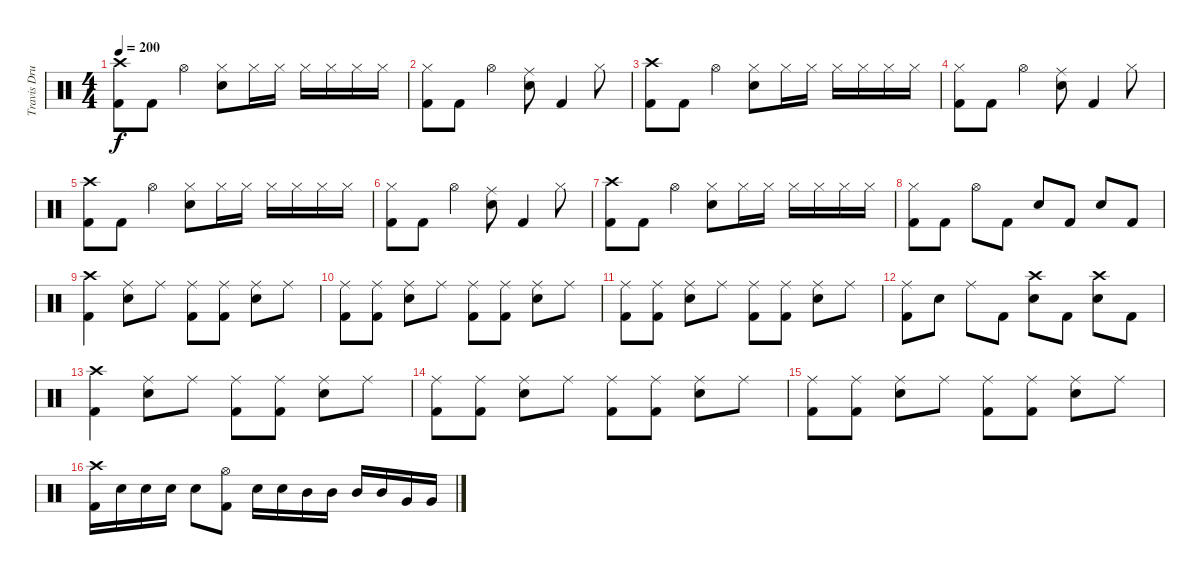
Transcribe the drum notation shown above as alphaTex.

\track ("Travis Drums" "Travis Dru") {instrument percussion}
\staff {score}
\articulation defaults
\ts (4 4)
\tempo 200
\clef neutral
\ks c
("Crash high (hit)" "Kick (hit) 2").8{dy f} "Kick (hit) 2".8 "Hi-Hat (open)".4 ("Hi-Hat (closed)" "Electric Snare (hit)").8 "Hi-Hat (closed)".16 "Hi-Hat (closed)".16 "Hi-Hat (closed)".16 "Hi-Hat (closed)".16 "Hi-Hat (closed)".16 "Hi-Hat (closed)".16 |
("Hi-Hat (closed)" "Kick (hit) 2").8 "Kick (hit) 2".8 "Hi-Hat (open)".4 ("Ride (middle)" "Electric Snare (hit)").8 "Kick (hit) 2".4 "Hi-Hat (closed)".8 |
("Crash high (hit)" "Kick (hit) 2").8 "Kick (hit) 2".8 "Hi-Hat (open)".4 ("Hi-Hat (closed)" "Electric Snare (hit)").8 "Hi-Hat (closed)".16 "Hi-Hat (closed)".16 "Hi-Hat (closed)".16 "Hi-Hat (closed)".16 "Hi-Hat (closed)".16 "Hi-Hat (closed)".16 |
("Hi-Hat (closed)" "Kick (hit) 2").8 "Kick (hit) 2".8 "Hi-Hat (open)".4 ("Ride (middle)" "Electric Snare (hit)").8 "Kick (hit) 2".4 "Hi-Hat (closed)".8 |
("Crash high (hit)" "Kick (hit) 2").8 "Kick (hit) 2".8 "Hi-Hat (open)".4 ("Hi-Hat (closed)" "Electric Snare (hit)").8 "Hi-Hat (closed)".16 "Hi-Hat (closed)".16 "Hi-Hat (closed)".16 "Hi-Hat (closed)".16 "Hi-Hat (closed)".16 "Hi-Hat (closed)".16 |
("Hi-Hat (closed)" "Kick (hit) 2").8 "Kick (hit) 2".8 "Hi-Hat (open)".4 ("Ride (middle)" "Electric Snare (hit)").8 "Kick (hit) 2".4 "Hi-Hat (closed)".8 |
("Crash high (hit)" "Kick (hit) 2").8 "Kick (hit) 2".8 "Hi-Hat (open)".4 ("Hi-Hat (closed)" "Electric Snare (hit)").8 "Hi-Hat (closed)".16 "Hi-Hat (closed)".16 "Hi-Hat (closed)".16 "Hi-Hat (closed)".16 "Hi-Hat (closed)".16 "Hi-Hat (closed)".16 |
("Hi-Hat (closed)" "Kick (hit) 2").8 "Kick (hit) 2".8 "Hi-Hat (open)".8 "Kick (hit) 2".8 "Electric Snare (hit)".8 "Kick (hit) 2".8 "Electric Snare (hit)".8 "Kick (hit) 2".8 |
("Crash high (hit)" "Kick (hit) 2").4 ("Ride (middle)" "Electric Snare (hit)").8 "Ride (middle)".8 ("Ride (middle)" "Kick (hit) 2").8 ("Ride (middle)" "Kick (hit) 2").8 ("Ride (middle)" "Electric Snare (hit)").8 "Ride (middle)".8 |
("Ride (middle)" "Kick (hit) 2").8 ("Ride (middle)" "Kick (hit) 2").8 ("Ride (middle)" "Electric Snare (hit)").8 "Ride (middle)".8 ("Ride (middle)" "Kick (hit) 2").8 ("Ride (middle)" "Kick (hit) 2").8 ("Ride (middle)" "Electric Snare (hit)").8 "Ride (middle)".8 |
("Ride (middle)" "Kick (hit) 2").8 ("Ride (middle)" "Kick (hit) 2").8 ("Ride (middle)" "Electric Snare (hit)").8 "Ride (middle)".8 ("Ride (middle)" "Kick (hit) 2").8 ("Ride (middle)" "Kick (hit) 2").8 ("Ride (middle)" "Electric Snare (hit)").8 "Ride (middle)".8 |
("Ride (middle)" "Kick (hit) 2").8 "Electric Snare (hit)".8 "Ride (middle)".8 "Kick (hit) 2".8 ("Crash high (hit)" "Electric Snare (hit)").8 "Kick (hit) 2".8 ("Crash high (hit)" "Electric Snare (hit)").8 "Kick (hit) 2".8 |
("Crash high (hit)" "Kick (hit) 2").4 ("Ride (middle)" "Electric Snare (hit)").8 "Ride (middle)".8 ("Ride (middle)" "Kick (hit) 2").8 ("Ride (middle)" "Kick (hit) 2").8 ("Ride (middle)" "Electric Snare (hit)").8 "Ride (middle)".8 |
("Ride (middle)" "Kick (hit) 2").8 ("Ride (middle)" "Kick (hit) 2").8 ("Ride (middle)" "Electric Snare (hit)").8 "Ride (middle)".8 ("Ride (middle)" "Kick (hit) 2").8 ("Ride (middle)" "Kick (hit) 2").8 ("Ride (middle)" "Electric Snare (hit)").8 "Ride (middle)".8 |
("Ride (middle)" "Kick (hit) 2").8 ("Ride (middle)" "Kick (hit) 2").8 ("Ride (middle)" "Electric Snare (hit)").8 "Ride (middle)".8 ("Ride (middle)" "Kick (hit) 2").8 ("Ride (middle)" "Kick (hit) 2").8 ("Ride (middle)" "Electric Snare (hit)").8 "Ride (middle)".8 |
("Crash high (hit)" "Kick (hit) 2").16 "Electric Snare (hit)".16 "Electric Snare (hit)".16 "Electric Snare (hit)".16 "Electric Snare (hit)".8 ("Hi-Hat (open)" "Kick (hit) 2").8 "Electric Snare (hit)".16 "Electric Snare (hit)".16 "Mid Tom (hit)".16 "Mid Tom (hit)".16 "Mid Tom (hit)".16 "Mid Tom (hit)".16 "Very Low Tom (hit)".16 "Very Low Tom (hit)".16
